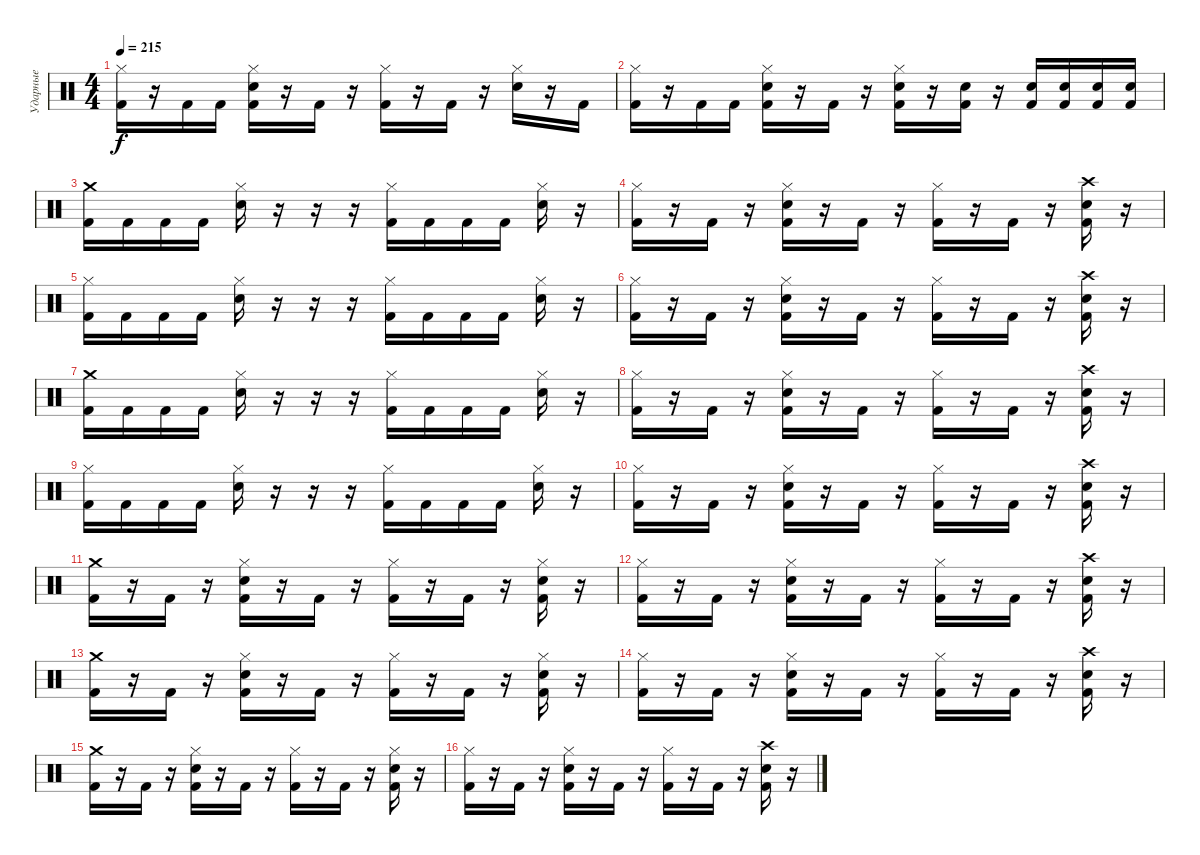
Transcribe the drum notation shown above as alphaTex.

\track ("Ударные" "Ударные") {instrument percussion}
\staff {score}
\articulation defaults
\ts (4 4)
\tempo 215
\clef neutral
\ks c
("Hi-Hat (closed)" "Kick (hit) 2").16{dy f} r.16 "Kick (hit) 2".16 "Kick (hit) 2".16 ("Hi-Hat (closed)" "Snare (hit) 2" "Kick (hit) 2").16 r.16 "Kick (hit) 2".16 r.16 ("Hi-Hat (closed)" "Kick (hit) 2").16 r.16 "Kick (hit) 2".16 r.16 ("Hi-Hat (closed)" "Snare (hit) 2").16 r.16 "Kick (hit) 2".16 |
("Hi-Hat (closed)" "Kick (hit) 2").16 r.16 "Kick (hit) 2".16 "Kick (hit) 2".16 ("Hi-Hat (closed)" "Snare (hit) 2" "Kick (hit) 2").16 r.16 "Kick (hit) 2".16 r.16 ("Hi-Hat (closed)" "Snare (hit) 2" "Kick (hit) 2").16 r.16 ("Snare (hit) 2" "Kick (hit) 2").16 r.16 ("Snare (hit) 2" "Kick (hit) 2").16 ("Snare (hit) 2" "Kick (hit) 2").16 ("Snare (hit) 2" "Kick (hit) 2").16 ("Snare (hit) 2" "Kick (hit) 2").16 |
("Crash medium (hit)" "Kick (hit) 2").16 "Kick (hit) 2".16 "Kick (hit) 2".16 "Kick (hit) 2".16 ("Hi-Hat (closed)" "Snare (hit) 2").16 r.16 r.16 r.16 ("Hi-Hat (closed)" "Kick (hit) 2").16 "Kick (hit) 2".16 "Kick (hit) 2".16 "Kick (hit) 2".16 ("Hi-Hat (closed)" "Snare (hit) 2").16 r.16 |
("Hi-Hat (closed)" "Kick (hit) 2").16 r.16 "Kick (hit) 2".16 r.16 ("Hi-Hat (closed)" "Snare (hit) 2" "Kick (hit) 2").16 r.16 "Kick (hit) 2".16 r.16 ("Hi-Hat (closed)" "Kick (hit) 2").16 r.16 "Kick (hit) 2".16 r.16 ("Crash high (hit)" "Snare (hit) 2" "Kick (hit) 2").16 r.16 |
("Hi-Hat (closed)" "Kick (hit) 2").16 "Kick (hit) 2".16 "Kick (hit) 2".16 "Kick (hit) 2".16 ("Hi-Hat (closed)" "Snare (hit) 2").16 r.16 r.16 r.16 ("Hi-Hat (closed)" "Kick (hit) 2").16 "Kick (hit) 2".16 "Kick (hit) 2".16 "Kick (hit) 2".16 ("Hi-Hat (closed)" "Snare (hit) 2").16 r.16 |
("Hi-Hat (closed)" "Kick (hit) 2").16 r.16 "Kick (hit) 2".16 r.16 ("Hi-Hat (closed)" "Snare (hit) 2" "Kick (hit) 2").16 r.16 "Kick (hit) 2".16 r.16 ("Hi-Hat (closed)" "Kick (hit) 2").16 r.16 "Kick (hit) 2".16 r.16 ("Crash high (hit)" "Snare (hit) 2" "Kick (hit) 2").16 r.16 |
("Crash medium (hit)" "Kick (hit) 2").16 "Kick (hit) 2".16 "Kick (hit) 2".16 "Kick (hit) 2".16 ("Hi-Hat (closed)" "Snare (hit) 2").16 r.16 r.16 r.16 ("Hi-Hat (closed)" "Kick (hit) 2").16 "Kick (hit) 2".16 "Kick (hit) 2".16 "Kick (hit) 2".16 ("Hi-Hat (closed)" "Snare (hit) 2").16 r.16 |
("Hi-Hat (closed)" "Kick (hit) 2").16 r.16 "Kick (hit) 2".16 r.16 ("Hi-Hat (closed)" "Snare (hit) 2" "Kick (hit) 2").16 r.16 "Kick (hit) 2".16 r.16 ("Hi-Hat (closed)" "Kick (hit) 2").16 r.16 "Kick (hit) 2".16 r.16 ("Crash high (hit)" "Snare (hit) 2" "Kick (hit) 2").16 r.16 |
("Hi-Hat (closed)" "Kick (hit) 2").16 "Kick (hit) 2".16 "Kick (hit) 2".16 "Kick (hit) 2".16 ("Hi-Hat (closed)" "Snare (hit) 2").16 r.16 r.16 r.16 ("Hi-Hat (closed)" "Kick (hit) 2").16 "Kick (hit) 2".16 "Kick (hit) 2".16 "Kick (hit) 2".16 ("Hi-Hat (closed)" "Snare (hit) 2").16 r.16 |
("Hi-Hat (closed)" "Kick (hit) 2").16 r.16 "Kick (hit) 2".16 r.16 ("Hi-Hat (closed)" "Snare (hit) 2" "Kick (hit) 2").16 r.16 "Kick (hit) 2".16 r.16 ("Hi-Hat (closed)" "Kick (hit) 2").16 r.16 "Kick (hit) 2".16 r.16 ("Crash high (hit)" "Snare (hit) 2" "Kick (hit) 2").16 r.16 |
("Crash medium (hit)" "Kick (hit) 2").16 r.16 "Kick (hit) 2".16 r.16 ("Hi-Hat (closed)" "Snare (hit) 2" "Kick (hit) 2").16 r.16 "Kick (hit) 2".16 r.16 ("Hi-Hat (closed)" "Kick (hit) 2").16 r.16 "Kick (hit) 2".16 r.16 ("Hi-Hat (closed)" "Snare (hit) 2" "Kick (hit) 2").16 r.16 |
("Hi-Hat (closed)" "Kick (hit) 2").16 r.16 "Kick (hit) 2".16 r.16 ("Hi-Hat (closed)" "Snare (hit) 2" "Kick (hit) 2").16 r.16 "Kick (hit) 2".16 r.16 ("Hi-Hat (closed)" "Kick (hit) 2").16 r.16 "Kick (hit) 2".16 r.16 ("Crash high (hit)" "Snare (hit) 2" "Kick (hit) 2").16 r.16 |
("Crash medium (hit)" "Kick (hit) 2").16 r.16 "Kick (hit) 2".16 r.16 ("Hi-Hat (closed)" "Snare (hit) 2" "Kick (hit) 2").16 r.16 "Kick (hit) 2".16 r.16 ("Hi-Hat (closed)" "Kick (hit) 2").16 r.16 "Kick (hit) 2".16 r.16 ("Hi-Hat (closed)" "Snare (hit) 2" "Kick (hit) 2").16 r.16 |
("Hi-Hat (closed)" "Kick (hit) 2").16 r.16 "Kick (hit) 2".16 r.16 ("Hi-Hat (closed)" "Snare (hit) 2" "Kick (hit) 2").16 r.16 "Kick (hit) 2".16 r.16 ("Hi-Hat (closed)" "Kick (hit) 2").16 r.16 "Kick (hit) 2".16 r.16 ("Crash high (hit)" "Snare (hit) 2" "Kick (hit) 2").16 r.16 |
("Crash medium (hit)" "Kick (hit) 2").16 r.16 "Kick (hit) 2".16 r.16 ("Hi-Hat (closed)" "Snare (hit) 2" "Kick (hit) 2").16 r.16 "Kick (hit) 2".16 r.16 ("Hi-Hat (closed)" "Kick (hit) 2").16 r.16 "Kick (hit) 2".16 r.16 ("Hi-Hat (closed)" "Snare (hit) 2" "Kick (hit) 2").16 r.16 |
("Hi-Hat (closed)" "Kick (hit) 2").16 r.16 "Kick (hit) 2".16 r.16 ("Hi-Hat (closed)" "Snare (hit) 2" "Kick (hit) 2").16 r.16 "Kick (hit) 2".16 r.16 ("Hi-Hat (closed)" "Kick (hit) 2").16 r.16 "Kick (hit) 2".16 r.16 ("Crash high (hit)" "Snare (hit) 2" "Kick (hit) 2").16 r.16
